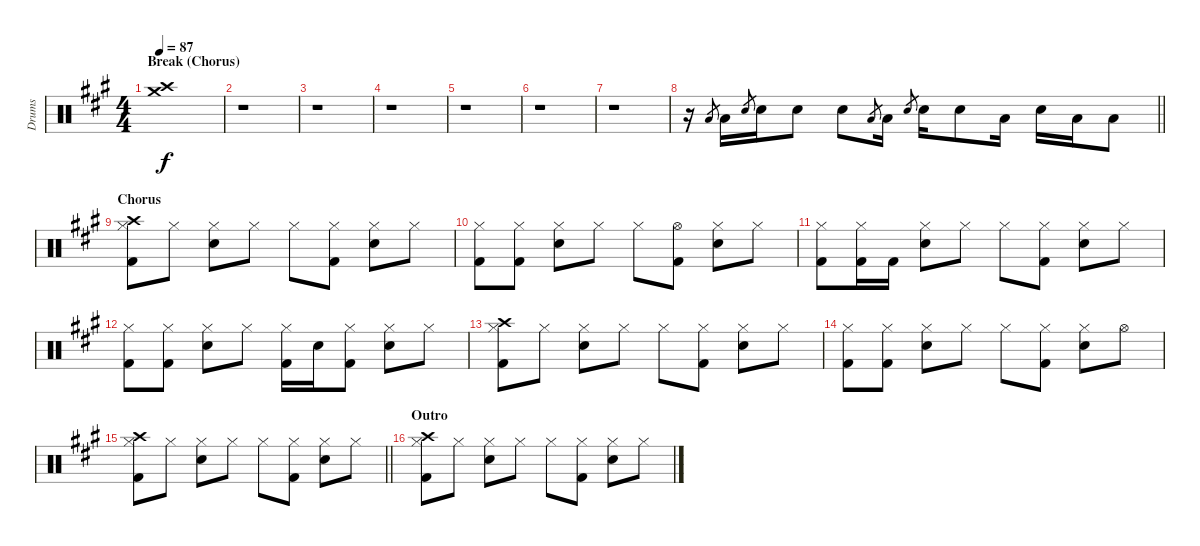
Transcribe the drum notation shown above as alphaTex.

\track ("Drums" "Drums") {instrument percussion}
\staff {score}
\articulation defaults
\ts (4 4)
\section ("" "Break (Chorus)")
\tempo 87
\clef neutral
\ks a
("Crash high (hit)" "Crash medium (hit)").1{dy f} |
r.1 |
r.1 |
r.1 |
r.1 |
r.1 |
r.1 |
\barLineRight lightlight
r.16 "Low Tom (hit)".8{gr} "Low Tom (hit)".16 "Electric Snare (hit)".8{gr} "Electric Snare (hit)".16 "Electric Snare (hit)".8 "Electric Snare (hit)".8 "Low Tom (hit)".8{gr} "Low Tom (hit)".16 "Electric Snare (hit)".8{gr} "Electric Snare (hit)".16 "Electric Snare (hit)".8 "Low Tom (hit)".16 "Electric Snare (hit)".16 "Low Tom (hit)".16 "Low Tom (hit)".8 |
\section ("" "Chorus")
("Crash high (hit)" "Hi-Hat (closed)" "Kick (hit) 2").8 "Hi-Hat (closed)".8 ("Hi-Hat (closed)" "Electric Snare (hit)").8 "Hi-Hat (closed)".8 "Hi-Hat (closed)".8 ("Hi-Hat (closed)" "Kick (hit) 2").8 ("Hi-Hat (closed)" "Electric Snare (hit)").8 "Hi-Hat (closed)".8 |
("Hi-Hat (closed)" "Kick (hit) 2").8 ("Hi-Hat (closed)" "Kick (hit) 2").8 ("Hi-Hat (closed)" "Electric Snare (hit)").8 "Hi-Hat (closed)".8 "Hi-Hat (closed)".8 ("Hi-Hat (open)" "Kick (hit) 2").8 ("Hi-Hat (closed)" "Electric Snare (hit)").8 "Hi-Hat (closed)".8 |
("Hi-Hat (closed)" "Kick (hit) 2").8 ("Hi-Hat (closed)" "Kick (hit) 2").16 "Kick (hit) 2".16 ("Hi-Hat (closed)" "Electric Snare (hit)").8 "Hi-Hat (closed)".8 "Hi-Hat (closed)".8 ("Hi-Hat (closed)" "Kick (hit) 2").8 ("Hi-Hat (closed)" "Electric Snare (hit)").8 "Hi-Hat (closed)".8 |
("Hi-Hat (closed)" "Kick (hit) 2").8 ("Hi-Hat (closed)" "Kick (hit) 2").8 ("Hi-Hat (closed)" "Electric Snare (hit)").8 "Hi-Hat (closed)".8 ("Hi-Hat (closed)" "Kick (hit) 2").16 "Electric Snare (hit)".16 ("Hi-Hat (closed)" "Kick (hit) 2").8 ("Hi-Hat (closed)" "Electric Snare (hit)").8 "Hi-Hat (closed)".8 |
("Crash high (hit)" "Hi-Hat (closed)" "Kick (hit) 2").8 "Hi-Hat (closed)".8 ("Hi-Hat (closed)" "Electric Snare (hit)").8 "Hi-Hat (closed)".8 "Hi-Hat (closed)".8 ("Hi-Hat (closed)" "Kick (hit) 2").8 ("Hi-Hat (closed)" "Electric Snare (hit)").8 "Hi-Hat (closed)".8 |
("Hi-Hat (closed)" "Kick (hit) 2").8 ("Hi-Hat (closed)" "Kick (hit) 2").8 ("Hi-Hat (closed)" "Electric Snare (hit)").8 "Hi-Hat (closed)".8 "Hi-Hat (closed)".8 ("Hi-Hat (closed)" "Kick (hit) 2").8 ("Hi-Hat (closed)" "Electric Snare (hit)").8 "Hi-Hat (open)".8 |
\barLineRight lightlight
("Crash high (hit)" "Hi-Hat (closed)" "Kick (hit) 2").8 "Hi-Hat (closed)".8 ("Hi-Hat (closed)" "Electric Snare (hit)").8 "Hi-Hat (closed)".8 "Hi-Hat (closed)".8 ("Hi-Hat (closed)" "Kick (hit) 2").8 ("Hi-Hat (closed)" "Electric Snare (hit)").8 "Hi-Hat (closed)".8 |
\section ("" "Outro")
("Crash high (hit)" "Hi-Hat (closed)" "Kick (hit) 2").8 "Hi-Hat (closed)".8 ("Hi-Hat (closed)" "Electric Snare (hit)").8 "Hi-Hat (closed)".8 "Hi-Hat (closed)".8 ("Hi-Hat (closed)" "Kick (hit) 2").8 ("Hi-Hat (closed)" "Electric Snare (hit)").8 "Hi-Hat (closed)".8
